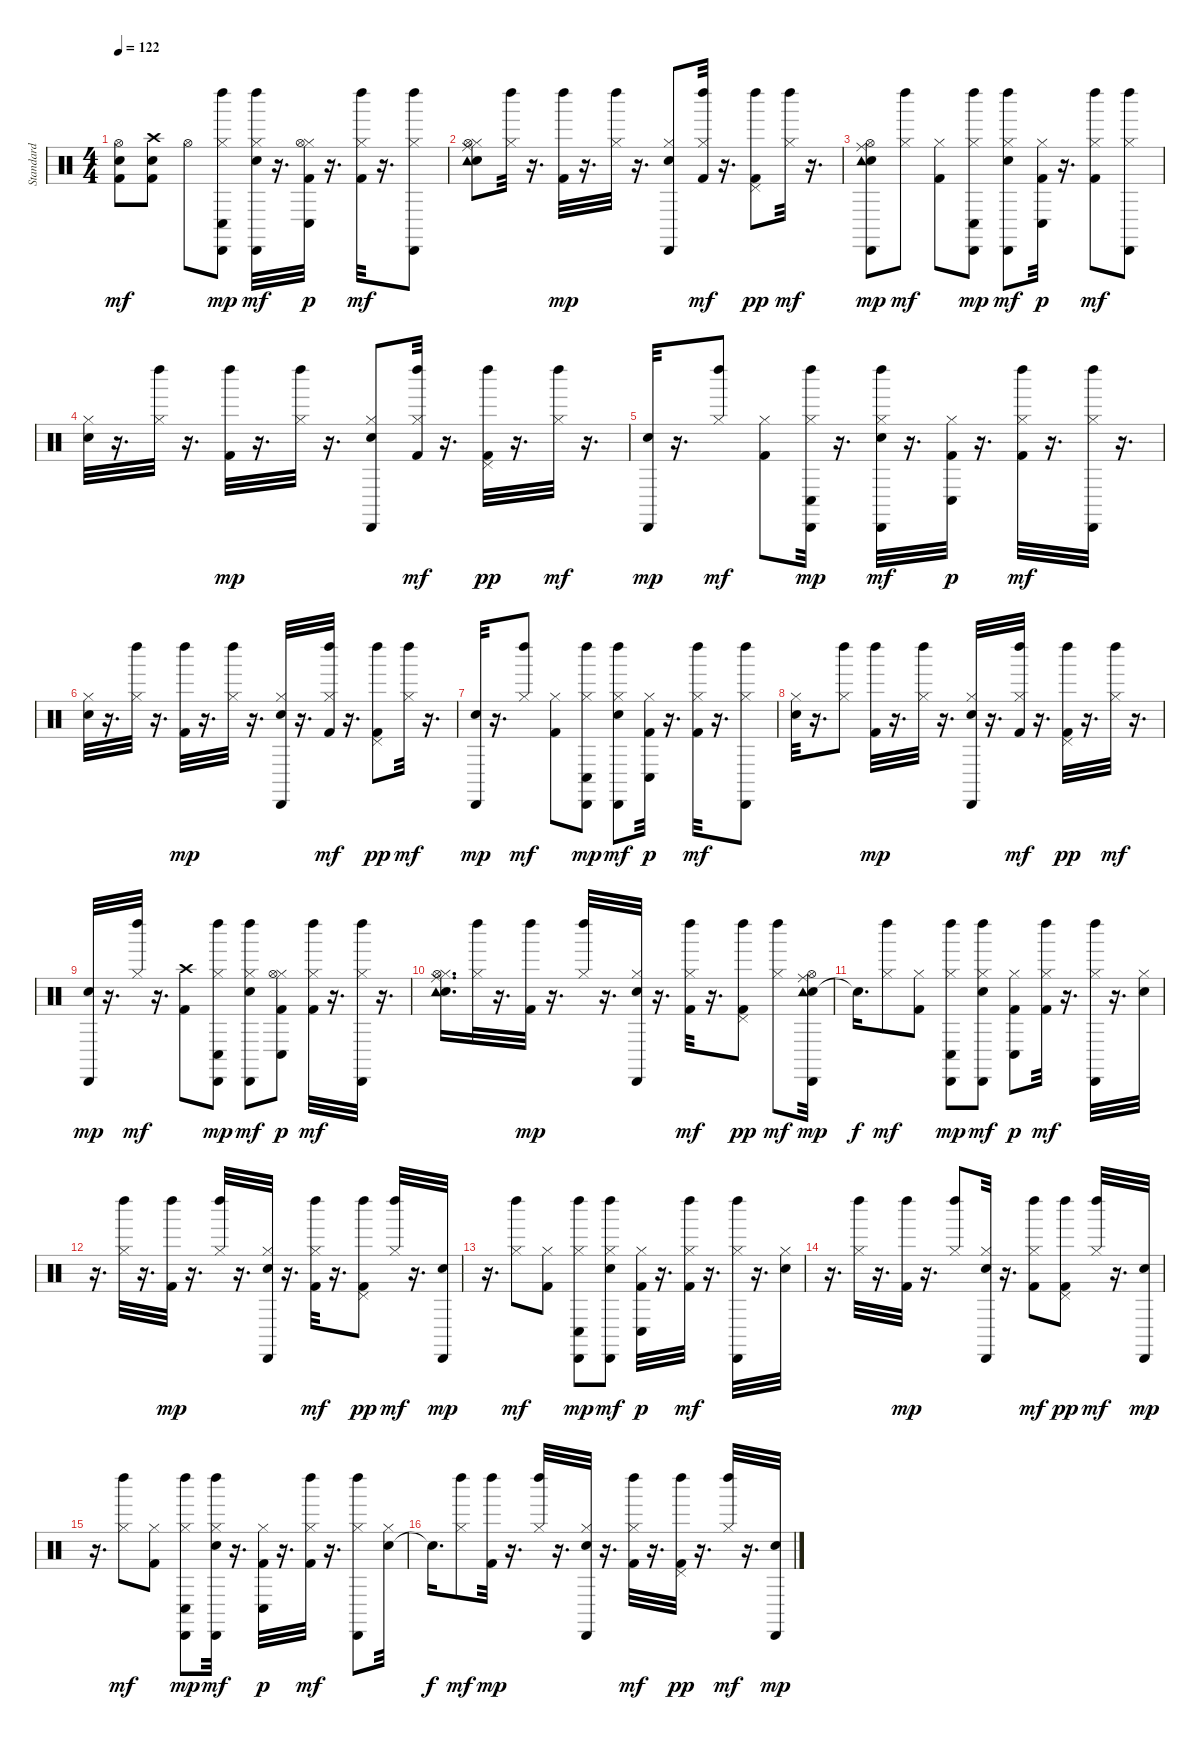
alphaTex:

\track (" Standard" " Standard") {instrument percussion}
\staff {score}
\articulation defaults
\ts (4 4)
\tempo 122
\clef neutral
\ks c
("Kick (hit) 2" "Snare (hit) 2" "Hi-Hat (open)").8{dy mf} ("Kick (hit) 2" "Snare (hit) 2" "Crash high (hit)").8 "Hi-Hat (open)".8 ("Hi-Hat (closed)" "Conga low (hit)" "Cabasa (hit)" "Left Maraca (hit)").8{dy mp} ("Snare (hit) 2" "Hi-Hat (closed)" "Cabasa (hit)" "Left Maraca (hit)").32{dy mf} r.16{d} ("Kick (hit) 2" "Hi-Hat (closed)" "Hi-Hat (open)" "Conga low (hit)").32{dy p} r.16{d} ("Kick (hit) 2" "Hi-Hat (closed)" "Left Maraca (hit)").32{dy mf} r.16{d} ("Hi-Hat (closed)" "Cabasa (hit)" "Left Maraca (hit)").8 |
("Snare (hit) 2" "Hi-Hat (closed)" "Hi-Hat (open)" "Ride (middle)" "Tambourine (hit)").8 ("Hi-Hat (closed)" "Left Maraca (hit)").32 r.16{d} ("Kick (hit) 2" "Left Maraca (hit)").32{dy mp} r.16{d} ("Hi-Hat (closed)" "Left Maraca (hit)").32 r.16{d} ("Snare (hit) 2" "Hi-Hat (closed)" "Cabasa (hit)").8 ("Kick (hit) 2" "Hi-Hat (closed)" "Left Maraca (hit)").32{dy mf} r.16{d} ("Kick (hit) 2" "Pedal Hi-Hat (hit)" "Left Maraca (hit)").8{dy pp} ("Hi-Hat (closed)" "Left Maraca (hit)").32{dy mf} r.16{d} |
("Snare (hit) 2" "Hi-Hat (open)" "Ride (middle)" "Tambourine (hit)" "Cabasa (hit)").8{dy mp} ("Hi-Hat (closed)" "Left Maraca (hit)").8{dy mf} ("Kick (hit) 2" "Hi-Hat (closed)").8 ("Hi-Hat (closed)" "Conga low (hit)" "Cabasa (hit)" "Left Maraca (hit)").8{dy mp} ("Snare (hit) 2" "Hi-Hat (closed)" "Cabasa (hit)" "Left Maraca (hit)").8{dy mf} ("Kick (hit) 2" "Hi-Hat (closed)" "Conga low (hit)").32{dy p} r.16{d} ("Kick (hit) 2" "Hi-Hat (closed)" "Left Maraca (hit)").8{dy mf} ("Hi-Hat (closed)" "Cabasa (hit)" "Left Maraca (hit)").8 |
("Snare (hit) 2" "Hi-Hat (closed)").32 r.16{d} ("Hi-Hat (closed)" "Left Maraca (hit)").32 r.16{d} ("Kick (hit) 2" "Left Maraca (hit)").32{dy mp} r.16{d} ("Hi-Hat (closed)" "Left Maraca (hit)").32 r.16{d} ("Snare (hit) 2" "Hi-Hat (closed)" "Cabasa (hit)").8 ("Kick (hit) 2" "Hi-Hat (closed)" "Left Maraca (hit)").32{dy mf} r.16{d} ("Kick (hit) 2" "Pedal Hi-Hat (hit)" "Left Maraca (hit)").32{dy pp} r.16{d} ("Hi-Hat (closed)" "Left Maraca (hit)").32{dy mf} r.16{d} |
("Snare (hit) 2" "Cabasa (hit)").32{dy mp} r.16{d} ("Hi-Hat (closed)" "Left Maraca (hit)").8{dy mf} ("Kick (hit) 2" "Hi-Hat (closed)").8 ("Hi-Hat (closed)" "Conga low (hit)" "Cabasa (hit)" "Left Maraca (hit)").32{dy mp} r.16{d} ("Snare (hit) 2" "Hi-Hat (closed)" "Cabasa (hit)" "Left Maraca (hit)").32{dy mf} r.16{d} ("Kick (hit) 2" "Hi-Hat (closed)" "Conga low (hit)").32{dy p} r.16{d} ("Kick (hit) 2" "Hi-Hat (closed)" "Left Maraca (hit)").32{dy mf} r.16{d} ("Hi-Hat (closed)" "Cabasa (hit)" "Left Maraca (hit)").32 r.16{d} |
("Snare (hit) 2" "Hi-Hat (closed)").32 r.16{d} ("Hi-Hat (closed)" "Left Maraca (hit)").32 r.16{d} ("Kick (hit) 2" "Left Maraca (hit)").32{dy mp} r.16{d} ("Hi-Hat (closed)" "Left Maraca (hit)").32 r.16{d} ("Snare (hit) 2" "Hi-Hat (closed)" "Cabasa (hit)").32 r.16{d} ("Kick (hit) 2" "Hi-Hat (closed)" "Left Maraca (hit)").32{dy mf} r.16{d} ("Kick (hit) 2" "Pedal Hi-Hat (hit)" "Left Maraca (hit)").8{dy pp} ("Hi-Hat (closed)" "Left Maraca (hit)").32{dy mf} r.16{d} |
("Snare (hit) 2" "Cabasa (hit)").32{dy mp} r.16{d} ("Hi-Hat (closed)" "Left Maraca (hit)").8{dy mf} ("Kick (hit) 2" "Hi-Hat (closed)").8 ("Hi-Hat (closed)" "Conga low (hit)" "Cabasa (hit)" "Left Maraca (hit)").8{dy mp} ("Snare (hit) 2" "Hi-Hat (closed)" "Cabasa (hit)" "Left Maraca (hit)").8{dy mf} ("Kick (hit) 2" "Hi-Hat (closed)" "Conga low (hit)").32{dy p} r.16{d} ("Kick (hit) 2" "Hi-Hat (closed)" "Left Maraca (hit)").32{dy mf} r.16{d} ("Hi-Hat (closed)" "Cabasa (hit)" "Left Maraca (hit)").8 |
("Snare (hit) 2" "Hi-Hat (closed)").32 r.16{d} ("Hi-Hat (closed)" "Left Maraca (hit)").8 ("Kick (hit) 2" "Left Maraca (hit)").32{dy mp} r.16{d} ("Hi-Hat (closed)" "Left Maraca (hit)").32 r.16{d} ("Snare (hit) 2" "Hi-Hat (closed)" "Cabasa (hit)").32 r.16{d} ("Kick (hit) 2" "Hi-Hat (closed)" "Left Maraca (hit)").32{dy mf} r.16{d} ("Kick (hit) 2" "Pedal Hi-Hat (hit)" "Left Maraca (hit)").32{dy pp} r.16{d} ("Hi-Hat (closed)" "Left Maraca (hit)").32{dy mf} r.16{d} |
("Snare (hit) 2" "Cabasa (hit)").32{dy mp} r.16{d} ("Hi-Hat (closed)" "Left Maraca (hit)").32{dy mf} r.16{d} ("Kick (hit) 2" "Crash high (hit)").8 ("Hi-Hat (closed)" "Conga low (hit)" "Cabasa (hit)" "Left Maraca (hit)").8{dy mp} ("Snare (hit) 2" "Hi-Hat (closed)" "Cabasa (hit)" "Left Maraca (hit)").8{dy mf} ("Kick (hit) 2" "Hi-Hat (closed)" "Hi-Hat (open)" "Conga low (hit)").8{dy p} ("Kick (hit) 2" "Hi-Hat (closed)" "Left Maraca (hit)").32{dy mf} r.16{d} ("Hi-Hat (closed)" "Cabasa (hit)" "Left Maraca (hit)").32 r.16{d} |
("Snare (hit) 2" "Hi-Hat (closed)" "Hi-Hat (open)" "Ride (middle)" "Tambourine (hit)").16{d} ("Hi-Hat (closed)" "Left Maraca (hit)").32 r.16{d} ("Kick (hit) 2" "Left Maraca (hit)").32{dy mp} r.16{d} ("Hi-Hat (closed)" "Left Maraca (hit)").32 r.16{d} ("Snare (hit) 2" "Hi-Hat (closed)" "Cabasa (hit)").32 r.16{d} ("Kick (hit) 2" "Hi-Hat (closed)" "Left Maraca (hit)").32{dy mf} r.16{d} ("Kick (hit) 2" "Pedal Hi-Hat (hit)" "Left Maraca (hit)").8{dy pp} ("Hi-Hat (closed)" "Left Maraca (hit)").8{dy mf} ("Snare (hit) 2" "Hi-Hat (open)" "Ride (middle)" "Tambourine (hit)" "Cabasa (hit)").32{dy mp} |
"Snare (hit)"{t}.16{d dy f} ("Hi-Hat (closed)" "Left Maraca (hit)").8{dy mf} ("Kick (hit) 2" "Hi-Hat (closed)").8 ("Hi-Hat (closed)" "Conga low (hit)" "Cabasa (hit)" "Left Maraca (hit)").8{dy mp} ("Snare (hit) 2" "Hi-Hat (closed)" "Cabasa (hit)" "Left Maraca (hit)").8{dy mf} ("Kick (hit) 2" "Hi-Hat (closed)" "Conga low (hit)").8{dy p} ("Kick (hit) 2" "Hi-Hat (closed)" "Left Maraca (hit)").32{dy mf} r.16{d} ("Hi-Hat (closed)" "Cabasa (hit)" "Left Maraca (hit)").32 r.16{d} ("Snare (hit) 2" "Hi-Hat (closed)").32 |
r.16{d} ("Hi-Hat (closed)" "Left Maraca (hit)").32 r.16{d} ("Kick (hit) 2" "Left Maraca (hit)").32{dy mp} r.16{d} ("Hi-Hat (closed)" "Left Maraca (hit)").32 r.16{d} ("Snare (hit) 2" "Hi-Hat (closed)" "Cabasa (hit)").32 r.16{d} ("Kick (hit) 2" "Hi-Hat (closed)" "Left Maraca (hit)").32{dy mf} r.16{d} ("Kick (hit) 2" "Pedal Hi-Hat (hit)" "Left Maraca (hit)").8{dy pp} ("Hi-Hat (closed)" "Left Maraca (hit)").32{dy mf} r.16{d} ("Snare (hit) 2" "Cabasa (hit)").32{dy mp} |
r.16{d} ("Hi-Hat (closed)" "Left Maraca (hit)").8{dy mf} ("Kick (hit) 2" "Hi-Hat (closed)").8 ("Hi-Hat (closed)" "Conga low (hit)" "Cabasa (hit)" "Left Maraca (hit)").8{dy mp} ("Snare (hit) 2" "Hi-Hat (closed)" "Cabasa (hit)" "Left Maraca (hit)").8{dy mf} ("Kick (hit) 2" "Hi-Hat (closed)" "Conga low (hit)").32{dy p} r.16{d} ("Kick (hit) 2" "Hi-Hat (closed)" "Left Maraca (hit)").32{dy mf} r.16{d} ("Hi-Hat (closed)" "Cabasa (hit)" "Left Maraca (hit)").32 r.16{d} ("Snare (hit) 2" "Hi-Hat (closed)").32 |
r.16{d} ("Hi-Hat (closed)" "Left Maraca (hit)").32 r.16{d} ("Kick (hit) 2" "Left Maraca (hit)").32{dy mp} r.16{d} ("Hi-Hat (closed)" "Left Maraca (hit)").8 ("Snare (hit) 2" "Hi-Hat (closed)" "Cabasa (hit)").32 r.16{d} ("Kick (hit) 2" "Hi-Hat (closed)" "Left Maraca (hit)").8{dy mf} ("Kick (hit) 2" "Pedal Hi-Hat (hit)" "Left Maraca (hit)").8{dy pp} ("Hi-Hat (closed)" "Left Maraca (hit)").32{dy mf} r.16{d} ("Snare (hit) 2" "Cabasa (hit)").32{dy mp} |
r.16{d} ("Hi-Hat (closed)" "Left Maraca (hit)").8{dy mf} ("Kick (hit) 2" "Hi-Hat (closed)").8 ("Hi-Hat (closed)" "Conga low (hit)" "Cabasa (hit)" "Left Maraca (hit)").8{dy mp} ("Snare (hit) 2" "Hi-Hat (closed)" "Cabasa (hit)" "Left Maraca (hit)").32{dy mf} r.16{d} ("Kick (hit) 2" "Hi-Hat (closed)" "Conga low (hit)").32{dy p} r.16{d} ("Kick (hit) 2" "Hi-Hat (closed)" "Left Maraca (hit)").32{dy mf} r.16{d} ("Hi-Hat (closed)" "Cabasa (hit)" "Left Maraca (hit)").8 ("Snare (hit) 2" "Hi-Hat (closed)").32 |
"Snare (hit)"{t}.16{d dy f} ("Hi-Hat (closed)" "Left Maraca (hit)").8{dy mf} ("Kick (hit) 2" "Left Maraca (hit)").32{dy mp} r.16{d} ("Hi-Hat (closed)" "Left Maraca (hit)").32 r.16{d} ("Snare (hit) 2" "Hi-Hat (closed)" "Cabasa (hit)").32 r.16{d} ("Kick (hit) 2" "Hi-Hat (closed)" "Left Maraca (hit)").32{dy mf} r.16{d} ("Kick (hit) 2" "Pedal Hi-Hat (hit)" "Left Maraca (hit)").32{dy pp} r.16{d} ("Hi-Hat (closed)" "Left Maraca (hit)").32{dy mf} r.16{d} ("Snare (hit) 2" "Cabasa (hit)").32{dy mp}
